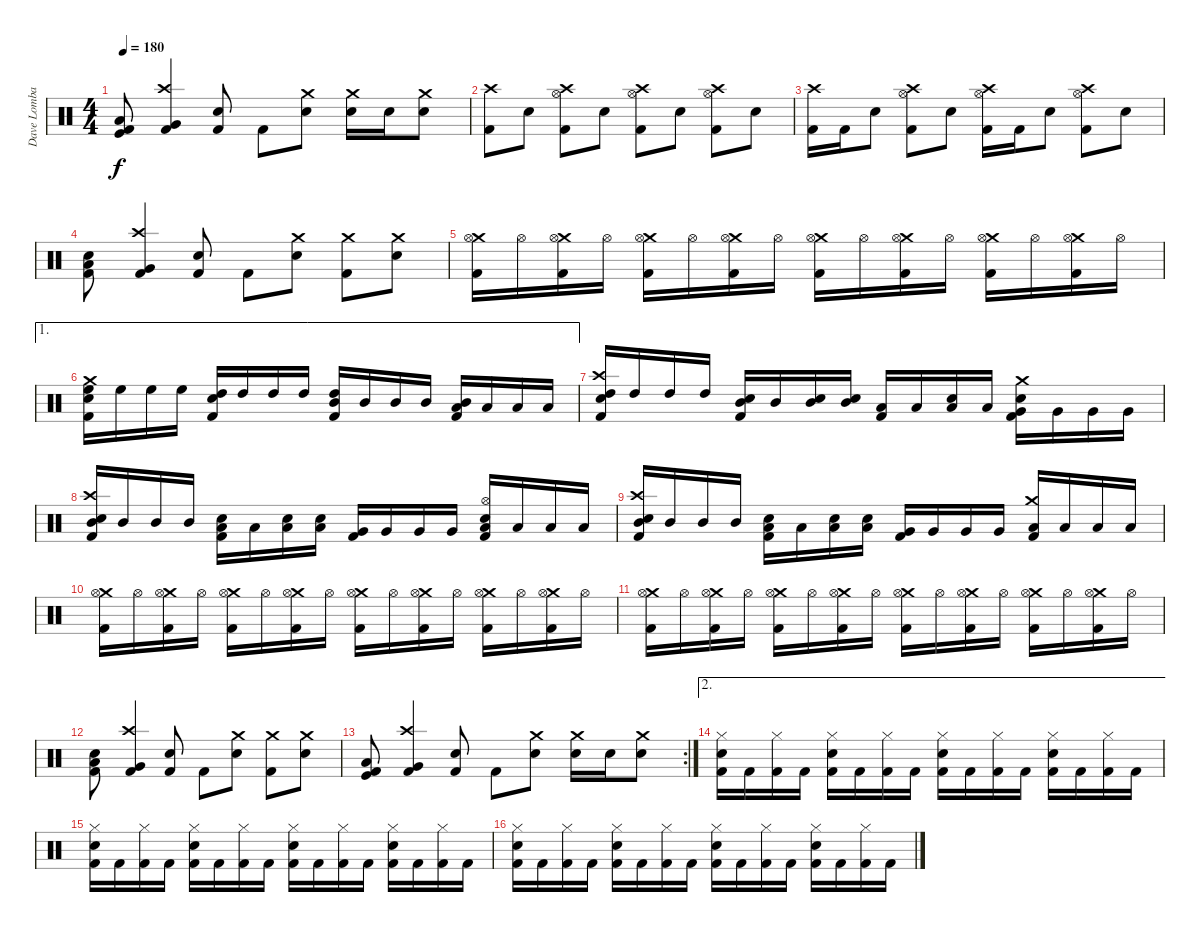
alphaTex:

\track ("Dave Lombardo" "Dave Lomba") {instrument percussion}
\staff {score}
\articulation defaults
\ts (4 4)
\tempo 180
\clef neutral
\ks c
("Kick (hit)" "Low Tom (hit)" "Kick (hit) 2").8{dy f} ("Crash high (hit)" "Very Low Tom (hit)" "Kick (hit) 2").4 ("Snare (hit) 2" "Kick (hit) 2").8 "Kick (hit) 2".8 ("Crash medium (hit)" "Snare (hit) 2").8 ("Crash medium (hit)" "Snare (hit) 2").16 "Snare (hit) 2".16 ("Crash medium (hit)" "Snare (hit) 2").8 |
("Crash high (hit)" "Kick (hit) 2").8 "Snare (hit) 2".8 ("Crash high (hit)" "Hi-Hat (open)" "Kick (hit) 2").8 "Snare (hit) 2".8 ("Crash high (hit)" "Hi-Hat (open)" "Kick (hit) 2").8 "Snare (hit) 2".8 ("Crash high (hit)" "Hi-Hat (open)" "Kick (hit) 2").8 "Snare (hit) 2".8 |
("Crash high (hit)" "Kick (hit) 2").16 "Kick (hit) 2".16 "Snare (hit) 2".8 ("Crash high (hit)" "Hi-Hat (open)" "Kick (hit) 2").8 "Snare (hit) 2".8 ("Crash high (hit)" "Hi-Hat (open)" "Kick (hit) 2").16 "Kick (hit) 2".16 "Snare (hit) 2".8 ("Crash high (hit)" "Hi-Hat (open)" "Kick (hit) 2").8 "Snare (hit) 2".8 |
("Snare (hit) 2" "Low Tom (hit)" "Kick (hit) 2").8 ("Crash high (hit)" "Very Low Tom (hit)" "Kick (hit) 2").4 ("Snare (hit) 2" "Kick (hit) 2").8 "Kick (hit) 2".8 ("Crash medium (hit)" "Snare (hit) 2").8 ("Crash medium (hit)" "Kick (hit) 2").8 ("Crash medium (hit)" "Snare (hit) 2").8 |
("Crash medium (hit)" "Hi-Hat (open)" "Kick (hit) 2").16 "Hi-Hat (open)".16 ("Crash medium (hit)" "Hi-Hat (open)" "Kick (hit) 2").16 "Hi-Hat (open)".16 ("Crash medium (hit)" "Hi-Hat (open)" "Kick (hit) 2").16 "Hi-Hat (open)".16 ("Crash medium (hit)" "Hi-Hat (open)" "Kick (hit) 2").16 "Hi-Hat (open)".16 ("Crash medium (hit)" "Hi-Hat (open)" "Kick (hit) 2").16 "Hi-Hat (open)".16 ("Crash medium (hit)" "Hi-Hat (open)" "Kick (hit) 2").16 "Hi-Hat (open)".16 ("Crash medium (hit)" "Hi-Hat (open)" "Kick (hit) 2").16 "Hi-Hat (open)".16 ("Crash medium (hit)" "Hi-Hat (open)" "Kick (hit) 2").16 "Hi-Hat (open)".16 |
\ae 1
("Crash medium (hit)" "Snare (hit) 2" "High Floor Tom (hit)" "Kick (hit) 2").16 "High Floor Tom (hit)".16 "High Floor Tom (hit)".16 "High Floor Tom (hit)".16 ("Snare (hit) 2" "High Tom (hit)" "Kick (hit) 2").16 "High Tom (hit)".16 "High Tom (hit)".16 "High Tom (hit)".16 ("Mid Tom (hit)" "High Tom (hit)" "Kick (hit) 2").16 "Mid Tom (hit)".16 "Mid Tom (hit)".16 "Mid Tom (hit)".16 ("Low Tom (hit)" "Mid Tom (hit)" "Kick (hit) 2").16 "Low Tom (hit)".16 "Low Tom (hit)".16 "Low Tom (hit)".16 |
("Crash high (hit)" "Snare (hit) 2" "High Tom (hit)" "Kick (hit) 2").16 "High Tom (hit)".16 "High Tom (hit)".16 "High Tom (hit)".16 ("Snare (hit) 2" "Mid Tom (hit)" "Kick (hit) 2").16 "Mid Tom (hit)".16 ("Snare (hit) 2" "Mid Tom (hit)").16 ("Snare (hit) 2" "Mid Tom (hit)").16 ("Low Tom (hit)" "Kick (hit) 2").16 "Low Tom (hit)".16 ("Snare (hit) 2" "Low Tom (hit)").16 "Low Tom (hit)".16 ("Crash medium (hit)" "Snare (hit) 2" "Very Low Tom (hit)" "Kick (hit) 2").16 "Very Low Tom (hit)".16 "Very Low Tom (hit)".16 "Very Low Tom (hit)".16 |
("Crash high (hit)" "Snare (hit) 2" "Mid Tom (hit)" "Kick (hit) 2").16 "Mid Tom (hit)".16 "Mid Tom (hit)".16 "Mid Tom (hit)".16 ("Snare (hit) 2" "Low Tom (hit)" "Kick (hit) 2").16 "Low Tom (hit)".16 ("Snare (hit) 2" "Low Tom (hit)").16 ("Snare (hit) 2" "Low Tom (hit)").16 ("Very Low Tom (hit)" "Kick (hit) 2").16 "Very Low Tom (hit)".16 "Very Low Tom (hit)".16 "Very Low Tom (hit)".16 ("Hi-Hat (open)" "Snare (hit) 2" "Low Floor Tom (hit)" "Kick (hit) 2").16 "Low Floor Tom (hit)".16 "Low Floor Tom (hit)".16 "Low Floor Tom (hit)".16 |
("Crash high (hit)" "Snare (hit) 2" "Mid Tom (hit)" "Kick (hit) 2").16 "Mid Tom (hit)".16 "Mid Tom (hit)".16 "Mid Tom (hit)".16 ("Snare (hit) 2" "Low Tom (hit)" "Kick (hit) 2").16 "Low Tom (hit)".16 ("Snare (hit) 2" "Low Tom (hit)").16 ("Snare (hit) 2" "Low Tom (hit)").16 ("Very Low Tom (hit)" "Kick (hit) 2").16 "Very Low Tom (hit)".16 "Very Low Tom (hit)".16 "Very Low Tom (hit)".16 ("Crash medium (hit)" "Low Floor Tom (hit)" "Kick (hit) 2").16 "Low Floor Tom (hit)".16 "Low Floor Tom (hit)".16 "Low Floor Tom (hit)".16 |
("Crash medium (hit)" "Hi-Hat (open)" "Kick (hit) 2").16 "Hi-Hat (open)".16 ("Crash medium (hit)" "Hi-Hat (open)" "Kick (hit) 2").16 "Hi-Hat (open)".16 ("Crash medium (hit)" "Hi-Hat (open)" "Kick (hit) 2").16 "Hi-Hat (open)".16 ("Crash medium (hit)" "Hi-Hat (open)" "Kick (hit) 2").16 "Hi-Hat (open)".16 ("Crash medium (hit)" "Hi-Hat (open)" "Kick (hit) 2").16 "Hi-Hat (open)".16 ("Crash medium (hit)" "Hi-Hat (open)" "Kick (hit) 2").16 "Hi-Hat (open)".16 ("Crash medium (hit)" "Hi-Hat (open)" "Kick (hit) 2").16 "Hi-Hat (open)".16 ("Crash medium (hit)" "Hi-Hat (open)" "Kick (hit) 2").16 "Hi-Hat (open)".16 |
("Crash medium (hit)" "Hi-Hat (open)" "Kick (hit) 2").16 "Hi-Hat (open)".16 ("Crash medium (hit)" "Hi-Hat (open)" "Kick (hit) 2").16 "Hi-Hat (open)".16 ("Crash medium (hit)" "Hi-Hat (open)" "Kick (hit) 2").16 "Hi-Hat (open)".16 ("Crash medium (hit)" "Hi-Hat (open)" "Kick (hit) 2").16 "Hi-Hat (open)".16 ("Crash medium (hit)" "Hi-Hat (open)" "Kick (hit) 2").16 "Hi-Hat (open)".16 ("Crash medium (hit)" "Hi-Hat (open)" "Kick (hit) 2").16 "Hi-Hat (open)".16 ("Crash medium (hit)" "Hi-Hat (open)" "Kick (hit) 2").16 "Hi-Hat (open)".16 ("Crash medium (hit)" "Hi-Hat (open)" "Kick (hit) 2").16 "Hi-Hat (open)".16 |
("Snare (hit) 2" "Low Tom (hit)" "Kick (hit) 2").8 ("Crash high (hit)" "Very Low Tom (hit)" "Kick (hit) 2").4 ("Snare (hit) 2" "Kick (hit) 2").8 "Kick (hit) 2".8 ("Crash medium (hit)" "Snare (hit) 2").8 ("Crash medium (hit)" "Kick (hit) 2").8 ("Crash medium (hit)" "Snare (hit) 2").8 |
\rc 2
("Kick (hit)" "Low Tom (hit)" "Kick (hit) 2").8 ("Crash high (hit)" "Very Low Tom (hit)" "Kick (hit) 2").4 ("Snare (hit) 2" "Kick (hit) 2").8 "Kick (hit) 2".8 ("Crash medium (hit)" "Snare (hit) 2").8 ("Crash medium (hit)" "Snare (hit) 2").16 "Snare (hit) 2".16 ("Crash medium (hit)" "Snare (hit) 2").8 |
\ae 2
("Hi-Hat (closed)" "Snare (hit) 2" "Kick (hit) 2").16 "Kick (hit) 2".16 ("Hi-Hat (closed)" "Kick (hit) 2").16 "Kick (hit) 2".16 ("Hi-Hat (closed)" "Snare (hit) 2" "Kick (hit) 2").16 "Kick (hit) 2".16 ("Hi-Hat (closed)" "Kick (hit) 2").16 "Kick (hit) 2".16 ("Hi-Hat (closed)" "Snare (hit) 2" "Kick (hit) 2").16 "Kick (hit) 2".16 ("Hi-Hat (closed)" "Kick (hit) 2").16 "Kick (hit) 2".16 ("Hi-Hat (closed)" "Snare (hit) 2" "Kick (hit) 2").16 "Kick (hit) 2".16 ("Hi-Hat (closed)" "Kick (hit) 2").16 "Kick (hit) 2".16 |
("Hi-Hat (closed)" "Snare (hit) 2" "Kick (hit) 2").16 "Kick (hit) 2".16 ("Hi-Hat (closed)" "Kick (hit) 2").16 "Kick (hit) 2".16 ("Hi-Hat (closed)" "Snare (hit) 2" "Kick (hit) 2").16 "Kick (hit) 2".16 ("Hi-Hat (closed)" "Kick (hit) 2").16 "Kick (hit) 2".16 ("Hi-Hat (closed)" "Snare (hit) 2" "Kick (hit) 2").16 "Kick (hit) 2".16 ("Hi-Hat (closed)" "Kick (hit) 2").16 "Kick (hit) 2".16 ("Hi-Hat (closed)" "Snare (hit) 2" "Kick (hit) 2").16 "Kick (hit) 2".16 ("Hi-Hat (closed)" "Kick (hit) 2").16 "Kick (hit) 2".16 |
("Hi-Hat (closed)" "Snare (hit) 2" "Kick (hit) 2").16 "Kick (hit) 2".16 ("Hi-Hat (closed)" "Kick (hit) 2").16 "Kick (hit) 2".16 ("Hi-Hat (closed)" "Snare (hit) 2" "Kick (hit) 2").16 "Kick (hit) 2".16 ("Hi-Hat (closed)" "Kick (hit) 2").16 "Kick (hit) 2".16 ("Hi-Hat (closed)" "Snare (hit) 2" "Kick (hit) 2").16 "Kick (hit) 2".16 ("Hi-Hat (closed)" "Kick (hit) 2").16 "Kick (hit) 2".16 ("Hi-Hat (closed)" "Snare (hit) 2" "Kick (hit) 2").16 "Kick (hit) 2".16 ("Hi-Hat (closed)" "Kick (hit) 2").16 "Kick (hit) 2".16
